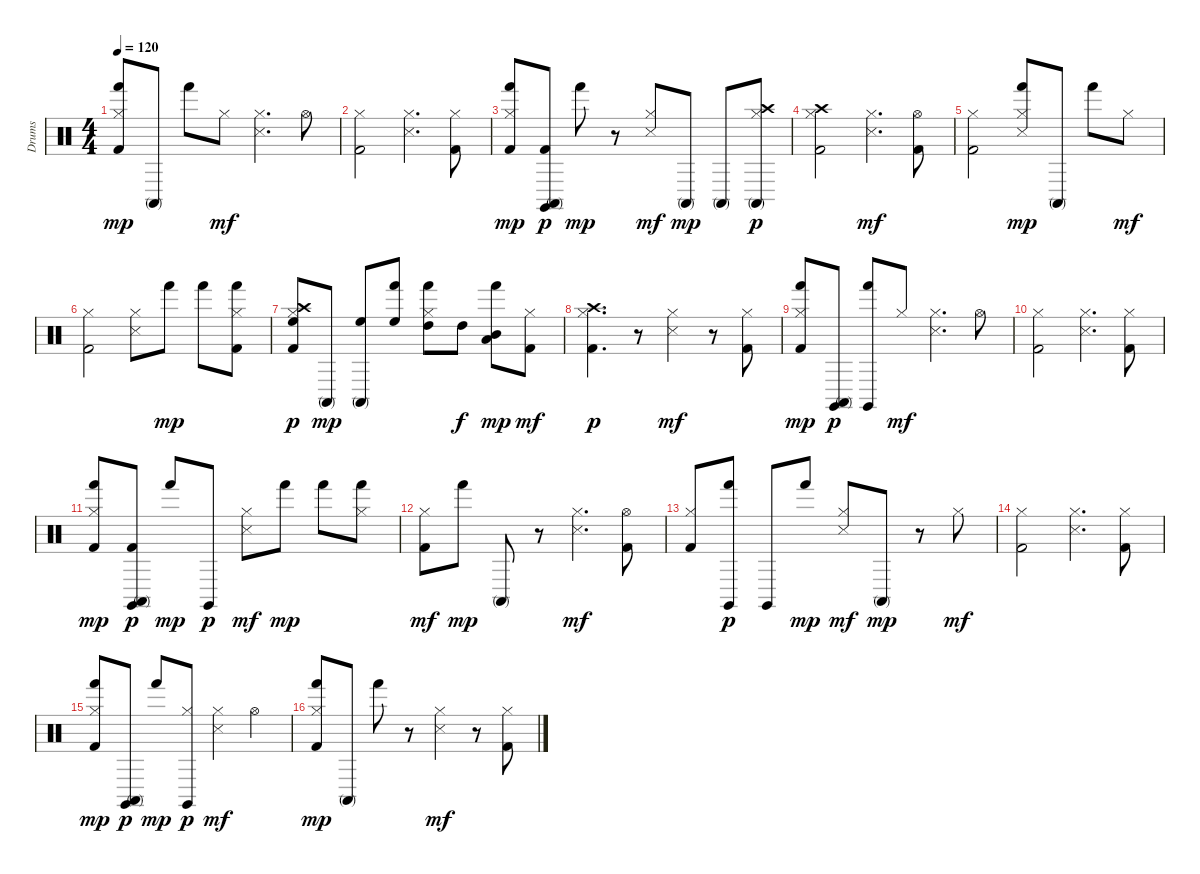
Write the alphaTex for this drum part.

\track ("Drums" "Drums") {instrument percussion}
\staff {score}
\articulation defaults
\ts (4 4)
\tempo 120
\clef neutral
\ks c
("Kick (hit) 2" "Hi-Hat (closed)" "Hand (hit)").8{dy mp} "Conga high (mute)".8 "Hand (hit)".8 "Hi-Hat (closed)".8{dy mf} ("Hi-Hat (closed)" "Snare (side stick) 3").4{d} "Hi-Hat (open)".8 |
("Kick (hit) 2" "Hi-Hat (closed)").2 ("Hi-Hat (closed)" "Snare (side stick) 3").4{d} ("Kick (hit) 2" "Hi-Hat (closed)").8 |
("Kick (hit) 2" "Hi-Hat (closed)" "Hand (hit)").8{dy mp} ("Kick (hit) 2" "Conga high (mute)" "Claves (hit)").8{dy p} "Hand (hit)".8{dy mp} r.8 ("Hi-Hat (closed)" "Snare (side stick) 3").8{dy mf} "Conga high (mute)".8{dy mp} "Conga high (mute)".8 ("Hi-Hat (closed)" "Conga high (mute)" "Crash high (hit)").8{dy p} |
("Kick (hit) 2" "Hi-Hat (closed)" "Crash high (hit)").2 ("Hi-Hat (closed)" "Snare (side stick) 3").4{d dy mf} ("Kick (hit) 2" "Hi-Hat (open)").8 |
("Kick (hit) 2" "Hi-Hat (closed)").2 ("Hi-Hat (closed)" "Snare (side stick) 3" "Hand (hit)").8{dy mp} "Conga high (mute)".8 "Hand (hit)".8 "Hi-Hat (closed)".8{dy mf} |
("Kick (hit) 2" "Hi-Hat (closed)").2 ("Hi-Hat (closed)" "Snare (side stick) 3").8 "Hand (hit)".8{dy mp} "Hand (hit)".8 ("Kick (hit) 2" "Hi-Hat (closed)" "Hand (hit)").8 |
("Kick (hit) 2" "Hi-Hat (closed)" "High Floor Tom (hit)" "Crash high (hit)").8{dy p} "Conga high (mute)".8{dy mp} ("High Floor Tom (hit)" "Conga high (mute)").8 ("High Floor Tom (hit)" "Hand (hit)").8 ("Hi-Hat (closed)" "Hand (hit)" "High Tom (hit)").8 "High Tom (hit)".8{dy f} ("Mid Tom (hit)" "Hand (hit)" "Low Tom (hit)").8{dy mp} ("Kick (hit) 2" "Hi-Hat (closed)").8{dy mf} |
("Kick (hit) 2" "Hi-Hat (closed)" "Crash high (hit)").4{d dy p} r.8 ("Hi-Hat (closed)" "Snare (side stick) 3").4{dy mf} r.8 ("Kick (hit) 2" "Hi-Hat (closed)").8 |
("Kick (hit) 2" "Hi-Hat (closed)" "Hand (hit)").8{dy mp} ("Conga high (mute)" "Claves (hit)").8{dy p} ("Hand (hit)" "Claves (hit)").8 "Hi-Hat (closed)".8{dy mf} ("Hi-Hat (closed)" "Snare (side stick) 3").4{d} "Hi-Hat (open)".8 |
("Kick (hit) 2" "Hi-Hat (closed)").2 ("Hi-Hat (closed)" "Snare (side stick) 3").4{d} ("Kick (hit) 2" "Hi-Hat (closed)").8 |
("Kick (hit) 2" "Hi-Hat (closed)" "Hand (hit)").8{dy mp} ("Kick (hit) 2" "Conga high (mute)" "Claves (hit)").8{dy p} "Hand (hit)".8{dy mp} "Claves (hit)".8{dy p} ("Hi-Hat (closed)" "Snare (side stick) 3").8{dy mf} "Hand (hit)".8{dy mp} "Hand (hit)".8 ("Hi-Hat (closed)" "Hand (hit)").8 |
("Kick (hit) 2" "Hi-Hat (closed)").8{dy mf} "Hand (hit)".8{dy mp} "Conga high (mute)".8 r.8 ("Hi-Hat (closed)" "Snare (side stick) 3").4{d dy mf} ("Kick (hit) 2" "Hi-Hat (open)").8 |
("Kick (hit) 2" "Hi-Hat (closed)").8 ("Hand (hit)" "Claves (hit)").8{dy p} "Claves (hit)".8 "Hand (hit)".8{dy mp} ("Hi-Hat (closed)" "Snare (side stick) 3").8{dy mf} "Conga high (mute)".8{dy mp} r.8 "Hi-Hat (closed)".8{dy mf} |
("Kick (hit) 2" "Hi-Hat (closed)").2 ("Hi-Hat (closed)" "Snare (side stick) 3").4{d} ("Kick (hit) 2" "Hi-Hat (closed)").8 |
("Kick (hit) 2" "Hi-Hat (closed)" "Hand (hit)").8{dy mp} ("Conga high (mute)" "Claves (hit)").8{dy p} "Hand (hit)".8{dy mp} ("Hi-Hat (closed)" "Claves (hit)").8{dy p} ("Hi-Hat (closed)" "Snare (side stick) 3").4{dy mf} "Hi-Hat (open)".4 |
("Kick (hit) 2" "Hi-Hat (closed)" "Hand (hit)").8{dy mp} "Conga high (mute)".8 "Hand (hit)".8 r.8 ("Hi-Hat (closed)" "Snare (side stick) 3").4{dy mf} r.8 ("Kick (hit) 2" "Hi-Hat (closed)").8
